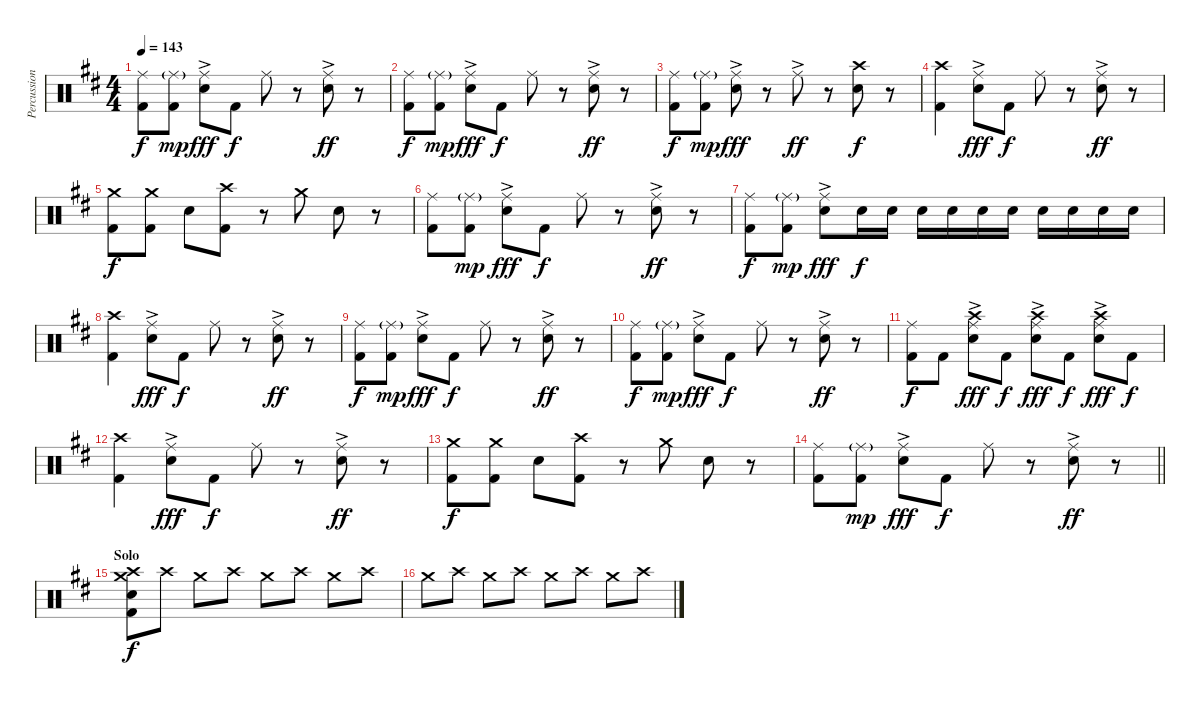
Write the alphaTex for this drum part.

\track ("Percussion" "Percussion") {instrument percussion}
\staff {score}
\articulation defaults
\ts (4 4)
\tempo 143
\clef neutral
\ks d
("Ride (middle)" "Kick (hit) 2").8{dy f} ("Ride (middle)"{g} "Kick (hit) 2").8{dy mp} ("Ride (middle)"{ac} "Snare (hit) 2").8{dy fff} "Kick (hit) 2".8{dy f} "Ride (middle)".8 r.8 ("Ride (middle)"{ac} "Snare (hit) 2").8{dy ff} r.8 |
("Ride (middle)" "Kick (hit) 2").8{dy f} ("Ride (middle)"{g} "Kick (hit) 2").8{dy mp} ("Ride (middle)"{ac} "Snare (hit) 2").8{dy fff} "Kick (hit) 2".8{dy f} "Ride (middle)".8 r.8 ("Ride (middle)"{ac} "Snare (hit) 2").8{dy ff} r.8 |
("Ride (middle)" "Kick (hit) 2").8{dy f} ("Ride (middle)"{g} "Kick (hit) 2").8{dy mp} ("Ride (middle)"{ac} "Snare (hit) 2").8{dy fff} r.8 "Ride (middle)"{ac}.8{dy ff} r.8 ("Crash high (hit)" "Snare (hit) 2").8{dy f} r.8 |
("Crash high (hit)" "Kick (hit) 2").4 ("Ride (middle)"{ac} "Snare (hit) 2").8{dy fff} "Kick (hit) 2".8{dy f} "Ride (middle)".8 r.8 ("Ride (middle)"{ac} "Snare (hit) 2").8{dy ff} r.8 |
("Crash medium (hit)" "Kick (hit) 2").8{dy f} ("Crash medium (hit)" "Kick (hit) 2").8 "Snare (hit) 2".8 ("Crash high (hit)" "Kick (hit) 2").8 r.8 "Crash medium (hit)".8 "Snare (hit) 2".8 r.8 |
("Ride (middle)" "Kick (hit) 2").8 ("Ride (middle)"{g} "Kick (hit) 2").8{dy mp} ("Ride (middle)"{ac} "Snare (hit) 2").8{dy fff} "Kick (hit) 2".8{dy f} "Ride (middle)".8 r.8 ("Ride (middle)"{ac} "Snare (hit) 2").8{dy ff} r.8 |
("Ride (middle)" "Kick (hit) 2").8{dy f} ("Ride (middle)"{g} "Kick (hit) 2").8{dy mp} ("Ride (middle)"{ac} "Snare (hit) 2").8{dy fff} "Snare (hit) 2".16{dy f} "Snare (hit) 2".16 "Snare (hit) 2".16 "Snare (hit) 2".16 "Snare (hit) 2".16 "Snare (hit) 2".16 "Snare (hit) 2".16 "Snare (hit) 2".16 "Snare (hit) 2".16 "Snare (hit) 2".16 |
("Crash high (hit)" "Kick (hit) 2").4 ("Ride (middle)"{ac} "Snare (hit) 2").8{dy fff} "Kick (hit) 2".8{dy f} "Ride (middle)".8 r.8 ("Ride (middle)"{ac} "Snare (hit) 2").8{dy ff} r.8 |
("Ride (middle)" "Kick (hit) 2").8{dy f} ("Ride (middle)"{g} "Kick (hit) 2").8{dy mp} ("Ride (middle)"{ac} "Snare (hit) 2").8{dy fff} "Kick (hit) 2".8{dy f} "Ride (middle)".8 r.8 ("Ride (middle)"{ac} "Snare (hit) 2").8{dy ff} r.8 |
("Ride (middle)" "Kick (hit) 2").8{dy f} ("Ride (middle)"{g} "Kick (hit) 2").8{dy mp} ("Ride (middle)"{ac} "Snare (hit) 2").8{dy fff} "Kick (hit) 2".8{dy f} "Ride (middle)".8 r.8 ("Ride (middle)"{ac} "Snare (hit) 2").8{dy ff} r.8 |
("Ride (middle)" "Kick (hit) 2").8{dy f} "Kick (hit) 2".8 ("Crash high (hit)" "Ride (middle)"{ac} "Snare (hit) 2").8{dy fff} "Kick (hit) 2".8{dy f} ("Crash high (hit)" "Ride (middle)"{ac} "Snare (hit) 2").8{dy fff} "Kick (hit) 2".8{dy f} ("Crash high (hit)" "Ride (middle)"{ac} "Snare (hit) 2").8{dy fff} "Kick (hit) 2".8{dy f} |
("Crash high (hit)" "Kick (hit) 2").4 ("Ride (middle)"{ac} "Snare (hit) 2").8{dy fff} "Kick (hit) 2".8{dy f} "Ride (middle)".8 r.8 ("Ride (middle)"{ac} "Snare (hit) 2").8{dy ff} r.8 |
("Crash medium (hit)" "Kick (hit) 2").8{dy f} ("Crash medium (hit)" "Kick (hit) 2").8 "Snare (hit) 2".8 ("Crash high (hit)" "Kick (hit) 2").8 r.8 "Crash medium (hit)".8 "Snare (hit) 2".8 r.8 |
\barLineRight lightlight
("Ride (middle)" "Kick (hit) 2").8 ("Ride (middle)"{g} "Kick (hit) 2").8{dy mp} ("Ride (middle)"{ac} "Snare (hit) 2").8{dy fff} "Kick (hit) 2".8{dy f} "Ride (middle)".8 r.8 ("Ride (middle)"{ac} "Snare (hit) 2").8{dy ff} r.8 |
\section ("" "Solo")
("Crash medium (hit)" "Crash high (hit)" "Snare (hit) 2" "Kick (hit) 2").8{dy f} "Crash high (hit)".8 "Crash medium (hit)".8 "Crash high (hit)".8 "Crash medium (hit)".8 "Crash high (hit)".8 "Crash medium (hit)".8 "Crash high (hit)".8 |
"Crash medium (hit)".8 "Crash high (hit)".8 "Crash medium (hit)".8 "Crash high (hit)".8 "Crash medium (hit)".8 "Crash high (hit)".8 "Crash medium (hit)".8 "Crash high (hit)".8
